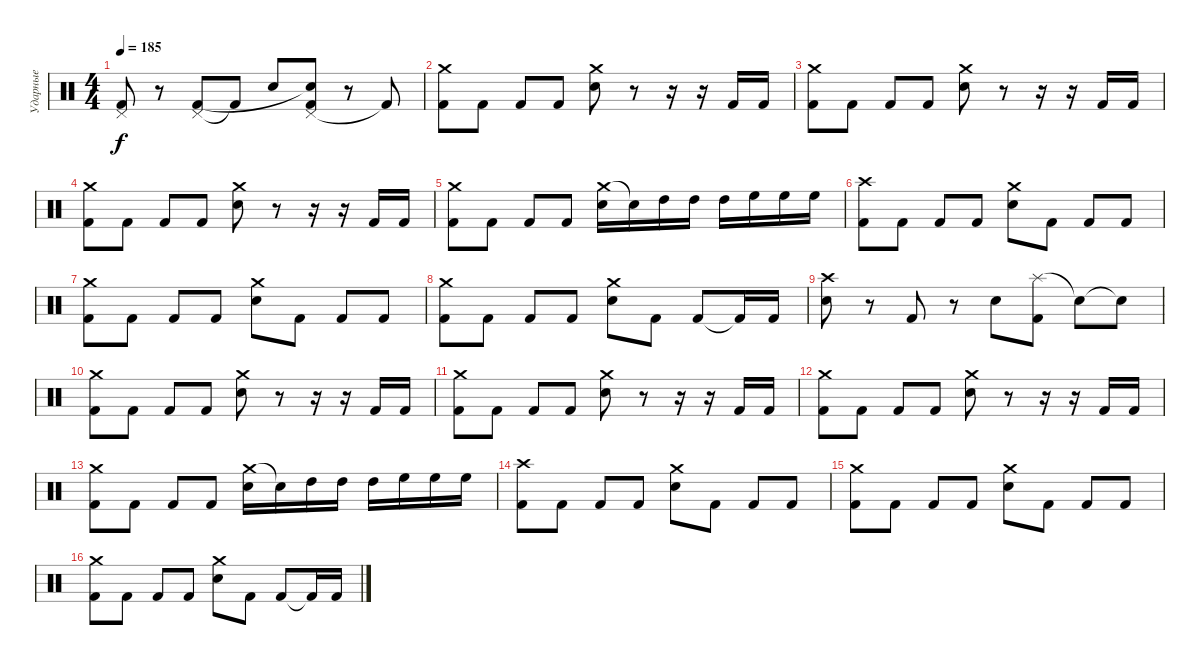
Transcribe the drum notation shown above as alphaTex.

\track ("Ударные" "Ударные") {instrument percussion}
\staff {score}
\articulation defaults
\ts (4 4)
\tempo 185
\clef neutral
\ks c
("Pedal Hi-Hat (hit)" "Kick (hit) 2").8{dy f} r.8 ("Pedal Hi-Hat (hit)" "Kick (hit) 2").8 "Kick (hit) 2"{t}.8 "Electric Snare (hit)".8 ("Pedal Hi-Hat (hit)" "Electric Snare (hit)"{t} "Kick (hit) 2").8 r.8 "Kick (hit) 2"{t}.8 |
("Crash medium (hit)" "Kick (hit) 2").8 "Kick (hit) 2".8 "Kick (hit) 2".8 "Kick (hit) 2".8 ("Crash medium (hit)" "Electric Snare (hit)").8 r.8 r.16 r.16 "Kick (hit) 2".16 "Kick (hit) 2".16 |
("Crash medium (hit)" "Kick (hit) 2").8 "Kick (hit) 2".8 "Kick (hit) 2".8 "Kick (hit) 2".8 ("Crash medium (hit)" "Electric Snare (hit)").8 r.8 r.16 r.16 "Kick (hit) 2".16 "Kick (hit) 2".16 |
("Crash medium (hit)" "Kick (hit) 2").8 "Kick (hit) 2".8 "Kick (hit) 2".8 "Kick (hit) 2".8 ("Crash medium (hit)" "Electric Snare (hit)").8 r.8 r.16 r.16 "Kick (hit) 2".16 "Kick (hit) 2".16 |
("Crash medium (hit)" "Kick (hit) 2").8 "Kick (hit) 2".8 "Kick (hit) 2".8 "Kick (hit) 2".8 ("Crash medium (hit)" "Electric Snare (hit)").16 "Electric Snare (hit)"{t}.16 "High Tom (hit)".16 "High Tom (hit)".16 "High Tom (hit)".16 "High Floor Tom (hit)".16 "High Floor Tom (hit)".16 "High Floor Tom (hit)".16 |
("Crash high (hit)" "Kick (hit) 2").8 "Kick (hit) 2".8 "Kick (hit) 2".8 "Kick (hit) 2".8 ("Crash medium (hit)" "Electric Snare (hit)").8 "Kick (hit) 2".8 "Kick (hit) 2".8 "Kick (hit) 2".8 |
("Crash medium (hit)" "Kick (hit) 2").8 "Kick (hit) 2".8 "Kick (hit) 2".8 "Kick (hit) 2".8 ("Crash medium (hit)" "Electric Snare (hit)").8 "Kick (hit) 2".8 "Kick (hit) 2".8 "Kick (hit) 2".8 |
("Crash medium (hit)" "Kick (hit) 2").8 "Kick (hit) 2".8 "Kick (hit) 2".8 "Kick (hit) 2".8 ("Crash medium (hit)" "Electric Snare (hit)").8 "Kick (hit) 2".8 "Kick (hit) 2".8 "Kick (hit) 2"{t}.16 "Kick (hit) 2".16 |
("Crash high (hit)" "Electric Snare (hit)").8 r.8 "Kick (hit) 2".8 r.8 "Electric Snare (hit)".8 ("Splash (hit)" "Kick (hit) 2").8 "Snare (hit)"{t}.8 "Snare (hit)"{t}.8 |
("Crash medium (hit)" "Kick (hit) 2").8 "Kick (hit) 2".8 "Kick (hit) 2".8 "Kick (hit) 2".8 ("Crash medium (hit)" "Electric Snare (hit)").8 r.8 r.16 r.16 "Kick (hit) 2".16 "Kick (hit) 2".16 |
("Crash medium (hit)" "Kick (hit) 2").8 "Kick (hit) 2".8 "Kick (hit) 2".8 "Kick (hit) 2".8 ("Crash medium (hit)" "Electric Snare (hit)").8 r.8 r.16 r.16 "Kick (hit) 2".16 "Kick (hit) 2".16 |
("Crash medium (hit)" "Kick (hit) 2").8 "Kick (hit) 2".8 "Kick (hit) 2".8 "Kick (hit) 2".8 ("Crash medium (hit)" "Electric Snare (hit)").8 r.8 r.16 r.16 "Kick (hit) 2".16 "Kick (hit) 2".16 |
("Crash medium (hit)" "Kick (hit) 2").8 "Kick (hit) 2".8 "Kick (hit) 2".8 "Kick (hit) 2".8 ("Crash medium (hit)" "Electric Snare (hit)").16 "Electric Snare (hit)"{t}.16 "High Tom (hit)".16 "High Tom (hit)".16 "High Tom (hit)".16 "High Floor Tom (hit)".16 "High Floor Tom (hit)".16 "High Floor Tom (hit)".16 |
("Crash high (hit)" "Kick (hit) 2").8 "Kick (hit) 2".8 "Kick (hit) 2".8 "Kick (hit) 2".8 ("Crash medium (hit)" "Electric Snare (hit)").8 "Kick (hit) 2".8 "Kick (hit) 2".8 "Kick (hit) 2".8 |
("Crash medium (hit)" "Kick (hit) 2").8 "Kick (hit) 2".8 "Kick (hit) 2".8 "Kick (hit) 2".8 ("Crash medium (hit)" "Electric Snare (hit)").8 "Kick (hit) 2".8 "Kick (hit) 2".8 "Kick (hit) 2".8 |
("Crash medium (hit)" "Kick (hit) 2").8 "Kick (hit) 2".8 "Kick (hit) 2".8 "Kick (hit) 2".8 ("Crash medium (hit)" "Electric Snare (hit)").8 "Kick (hit) 2".8 "Kick (hit) 2".8 "Kick (hit) 2"{t}.16 "Kick (hit) 2".16
